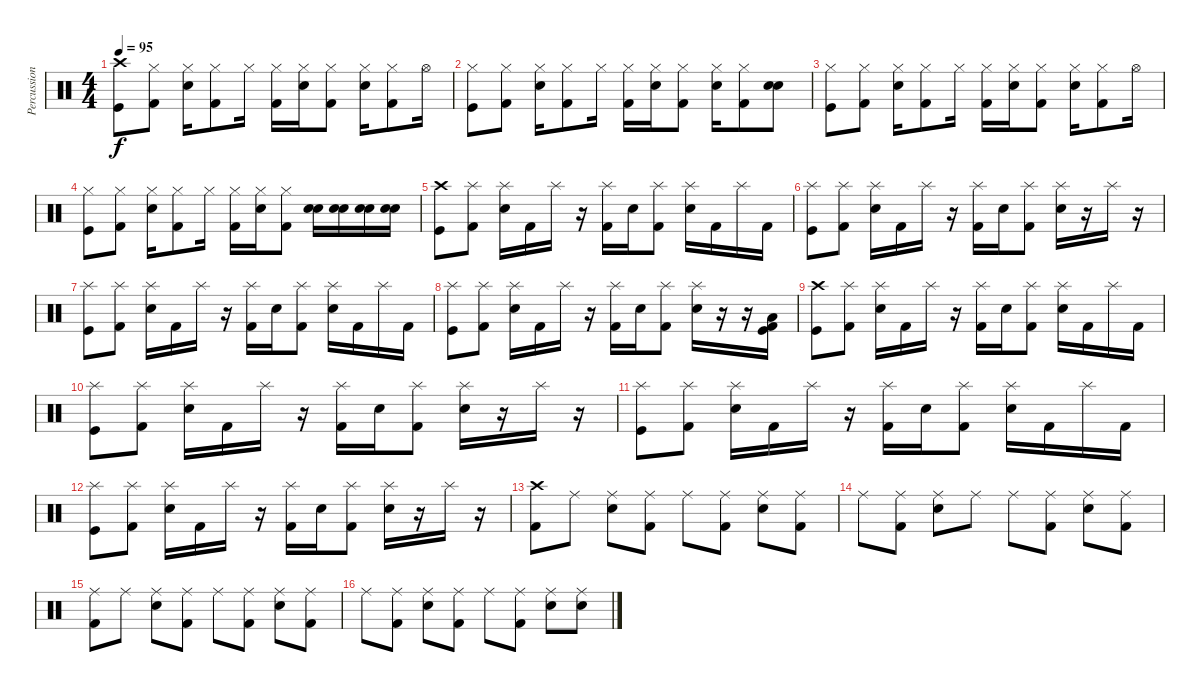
\track ("Percussion" "Percussion") {instrument percussion}
\staff {score}
\articulation defaults
\ts (4 4)
\tempo 95
\clef neutral
\ks c
("Crash high (hit)" "Kick (hit)").8{dy f} ("Hi-Hat (closed)" "Kick (hit) 2").8 ("Hi-Hat (closed)" "Electric Snare (hit)").16 ("Hi-Hat (closed)" "Kick (hit) 2").8 "Hi-Hat (closed)".16 ("Hi-Hat (closed)" "Kick (hit) 2").16 ("Hi-Hat (closed)" "Electric Snare (hit)").16 ("Hi-Hat (closed)" "Kick (hit) 2").8 ("Hi-Hat (closed)" "Electric Snare (hit)").16 ("Hi-Hat (closed)" "Kick (hit) 2").8 "Hi-Hat (open)".16 |
("Hi-Hat (closed)" "Kick (hit)").8 ("Hi-Hat (closed)" "Kick (hit) 2").8 ("Hi-Hat (closed)" "Electric Snare (hit)").16 ("Hi-Hat (closed)" "Kick (hit) 2").8 "Hi-Hat (closed)".16 ("Hi-Hat (closed)" "Kick (hit) 2").16 ("Hi-Hat (closed)" "Electric Snare (hit)").16 ("Hi-Hat (closed)" "Kick (hit) 2").8 ("Hi-Hat (closed)" "Electric Snare (hit)").16 ("Hi-Hat (closed)" "Kick (hit) 2").8 ("Snare (hit) 2" "Electric Snare (hit)").8 |
("Hi-Hat (closed)" "Kick (hit)").8 ("Hi-Hat (closed)" "Kick (hit) 2").8 ("Hi-Hat (closed)" "Electric Snare (hit)").16 ("Hi-Hat (closed)" "Kick (hit) 2").8 "Hi-Hat (closed)".16 ("Hi-Hat (closed)" "Kick (hit) 2").16 ("Hi-Hat (closed)" "Electric Snare (hit)").16 ("Hi-Hat (closed)" "Kick (hit) 2").8 ("Hi-Hat (closed)" "Electric Snare (hit)").16 ("Hi-Hat (closed)" "Kick (hit) 2").8 "Hi-Hat (open)".16 |
("Hi-Hat (closed)" "Kick (hit)").8 ("Hi-Hat (closed)" "Kick (hit) 2").8 ("Hi-Hat (closed)" "Electric Snare (hit)").16 ("Hi-Hat (closed)" "Kick (hit) 2").8 "Hi-Hat (closed)".16 ("Hi-Hat (closed)" "Kick (hit) 2").16 ("Hi-Hat (closed)" "Electric Snare (hit)").16 ("Hi-Hat (closed)" "Kick (hit) 2").8 ("Snare (hit) 2" "Electric Snare (hit)").16 ("Snare (hit) 2" "Electric Snare (hit)").16 ("Snare (hit) 2" "Electric Snare (hit)").16 ("Snare (hit) 2" "Electric Snare (hit)").16 |
("Crash high (hit)" "Kick (hit)").8 ("Splash (hit)" "Kick (hit) 2").8 ("Splash (hit)" "Electric Snare (hit)").16 "Kick (hit) 2".16 "Splash (hit)".16 r.16 ("Splash (hit)" "Kick (hit) 2").16 "Electric Snare (hit)".16 ("Splash (hit)" "Kick (hit) 2").8 ("Splash (hit)" "Electric Snare (hit)").16 "Kick (hit) 2".16 "Splash (hit)".16 "Kick (hit) 2".16 |
("Splash (hit)" "Kick (hit)").8 ("Splash (hit)" "Kick (hit) 2").8 ("Splash (hit)" "Electric Snare (hit)").16 "Kick (hit) 2".16 "Splash (hit)".16 r.16 ("Splash (hit)" "Kick (hit) 2").16 "Electric Snare (hit)".16 ("Splash (hit)" "Kick (hit) 2").8 ("Splash (hit)" "Electric Snare (hit)").16 r.16 "Splash (hit)".16 r.16 |
("Splash (hit)" "Kick (hit)").8 ("Splash (hit)" "Kick (hit) 2").8 ("Splash (hit)" "Electric Snare (hit)").16 "Kick (hit) 2".16 "Splash (hit)".16 r.16 ("Splash (hit)" "Kick (hit) 2").16 "Electric Snare (hit)".16 ("Splash (hit)" "Kick (hit) 2").8 ("Splash (hit)" "Electric Snare (hit)").16 "Kick (hit) 2".16 "Splash (hit)".16 "Kick (hit) 2".16 |
("Splash (hit)" "Kick (hit)").8 ("Splash (hit)" "Kick (hit) 2").8 ("Splash (hit)" "Electric Snare (hit)").16 "Kick (hit) 2".16 "Splash (hit)".16 r.16 ("Splash (hit)" "Kick (hit) 2").16 "Electric Snare (hit)".16 ("Splash (hit)" "Kick (hit) 2").8 ("Splash (hit)" "Electric Snare (hit)").16 r.16 r.16 ("Low Floor Tom (hit)" "Kick (hit)" "Kick (hit) 2").16 |
("Crash high (hit)" "Kick (hit)").8 ("Splash (hit)" "Kick (hit) 2").8 ("Splash (hit)" "Electric Snare (hit)").16 "Kick (hit) 2".16 "Splash (hit)".16 r.16 ("Splash (hit)" "Kick (hit) 2").16 "Electric Snare (hit)".16 ("Splash (hit)" "Kick (hit) 2").8 ("Splash (hit)" "Electric Snare (hit)").16 "Kick (hit) 2".16 "Splash (hit)".16 "Kick (hit) 2".16 |
("Splash (hit)" "Kick (hit)").8 ("Splash (hit)" "Kick (hit) 2").8 ("Splash (hit)" "Electric Snare (hit)").16 "Kick (hit) 2".16 "Splash (hit)".16 r.16 ("Splash (hit)" "Kick (hit) 2").16 "Electric Snare (hit)".16 ("Splash (hit)" "Kick (hit) 2").8 ("Splash (hit)" "Electric Snare (hit)").16 r.16 "Splash (hit)".16 r.16 |
("Splash (hit)" "Kick (hit)").8 ("Splash (hit)" "Kick (hit) 2").8 ("Splash (hit)" "Electric Snare (hit)").16 "Kick (hit) 2".16 "Splash (hit)".16 r.16 ("Splash (hit)" "Kick (hit) 2").16 "Electric Snare (hit)".16 ("Splash (hit)" "Kick (hit) 2").8 ("Splash (hit)" "Electric Snare (hit)").16 "Kick (hit) 2".16 "Splash (hit)".16 "Kick (hit) 2".16 |
("Splash (hit)" "Kick (hit)").8 ("Splash (hit)" "Kick (hit) 2").8 ("Splash (hit)" "Electric Snare (hit)").16 "Kick (hit) 2".16 "Splash (hit)".16 r.16 ("Splash (hit)" "Kick (hit) 2").16 "Electric Snare (hit)".16 ("Splash (hit)" "Kick (hit) 2").8 ("Splash (hit)" "Electric Snare (hit)").16 r.16 "Splash (hit)".16 r.16 |
("Crash high (hit)" "Kick (hit) 2").8 "Ride (middle)".8 ("Ride (middle)" "Snare (hit) 2").8 ("Ride (middle)" "Kick (hit) 2").8 "Ride (middle)".8 ("Ride (middle)" "Kick (hit) 2").8 ("Ride (middle)" "Snare (hit) 2").8 ("Ride (middle)" "Kick (hit) 2").8 |
"Ride (middle)".8 ("Ride (middle)" "Kick (hit) 2").8 ("Ride (middle)" "Snare (hit) 2").8 "Ride (middle)".8 "Ride (middle)".8 ("Ride (middle)" "Kick (hit) 2").8 ("Ride (middle)" "Snare (hit) 2").8 ("Ride (middle)" "Kick (hit) 2").8 |
("Ride (middle)" "Kick (hit) 2").8 "Ride (middle)".8 ("Ride (middle)" "Snare (hit) 2").8 ("Ride (middle)" "Kick (hit) 2").8 "Ride (middle)".8 ("Ride (middle)" "Kick (hit) 2").8 ("Ride (middle)" "Snare (hit) 2").8 ("Ride (middle)" "Kick (hit) 2").8 |
"Ride (middle)".8 ("Ride (middle)" "Kick (hit) 2").8 ("Ride (middle)" "Snare (hit) 2").8 ("Ride (middle)" "Kick (hit) 2").8 "Ride (middle)".8 ("Ride (middle)" "Kick (hit) 2").8 ("Ride (middle)" "Snare (hit) 2").8 ("Ride (middle)" "Snare (hit) 2").8
